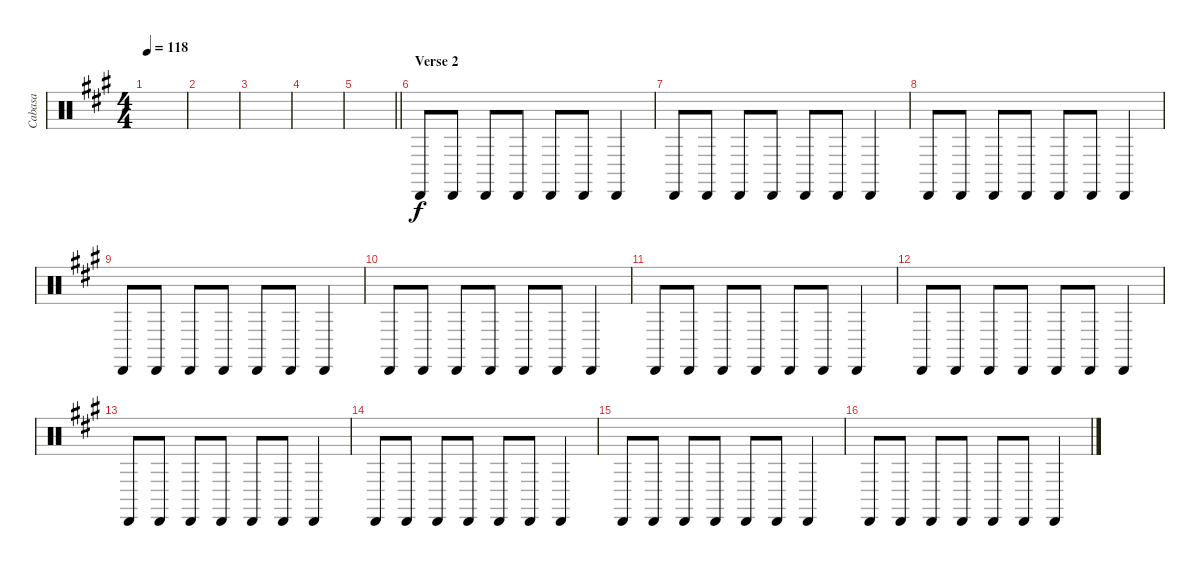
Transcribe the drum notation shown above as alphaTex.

\track ("Cabasa" "Cabasa") {instrument percussion}
\staff {score}
\articulation defaults
\ts (4 4)
\tempo 118
\clef neutral
\ks a
|
|
|
|
\barLineRight lightlight
|
\section ("" "Verse 2")
"Cabasa (hit)".8 "Cabasa (hit)".8 "Cabasa (hit)".8 "Cabasa (hit)".8 "Cabasa (hit)".8 "Cabasa (hit)".8 "Cabasa (hit)".4 |
"Cabasa (hit)".8 "Cabasa (hit)".8 "Cabasa (hit)".8 "Cabasa (hit)".8 "Cabasa (hit)".8 "Cabasa (hit)".8 "Cabasa (hit)".4 |
"Cabasa (hit)".8 "Cabasa (hit)".8 "Cabasa (hit)".8 "Cabasa (hit)".8 "Cabasa (hit)".8 "Cabasa (hit)".8 "Cabasa (hit)".4 |
"Cabasa (hit)".8 "Cabasa (hit)".8 "Cabasa (hit)".8 "Cabasa (hit)".8 "Cabasa (hit)".8 "Cabasa (hit)".8 "Cabasa (hit)".4 |
"Cabasa (hit)".8 "Cabasa (hit)".8 "Cabasa (hit)".8 "Cabasa (hit)".8 "Cabasa (hit)".8 "Cabasa (hit)".8 "Cabasa (hit)".4 |
"Cabasa (hit)".8 "Cabasa (hit)".8 "Cabasa (hit)".8 "Cabasa (hit)".8 "Cabasa (hit)".8 "Cabasa (hit)".8 "Cabasa (hit)".4 |
"Cabasa (hit)".8 "Cabasa (hit)".8 "Cabasa (hit)".8 "Cabasa (hit)".8 "Cabasa (hit)".8 "Cabasa (hit)".8 "Cabasa (hit)".4 |
"Cabasa (hit)".8 "Cabasa (hit)".8 "Cabasa (hit)".8 "Cabasa (hit)".8 "Cabasa (hit)".8 "Cabasa (hit)".8 "Cabasa (hit)".4 |
"Cabasa (hit)".8 "Cabasa (hit)".8 "Cabasa (hit)".8 "Cabasa (hit)".8 "Cabasa (hit)".8 "Cabasa (hit)".8 "Cabasa (hit)".4 |
"Cabasa (hit)".8 "Cabasa (hit)".8 "Cabasa (hit)".8 "Cabasa (hit)".8 "Cabasa (hit)".8 "Cabasa (hit)".8 "Cabasa (hit)".4 |
"Cabasa (hit)".8 "Cabasa (hit)".8 "Cabasa (hit)".8 "Cabasa (hit)".8 "Cabasa (hit)".8 "Cabasa (hit)".8 "Cabasa (hit)".4
